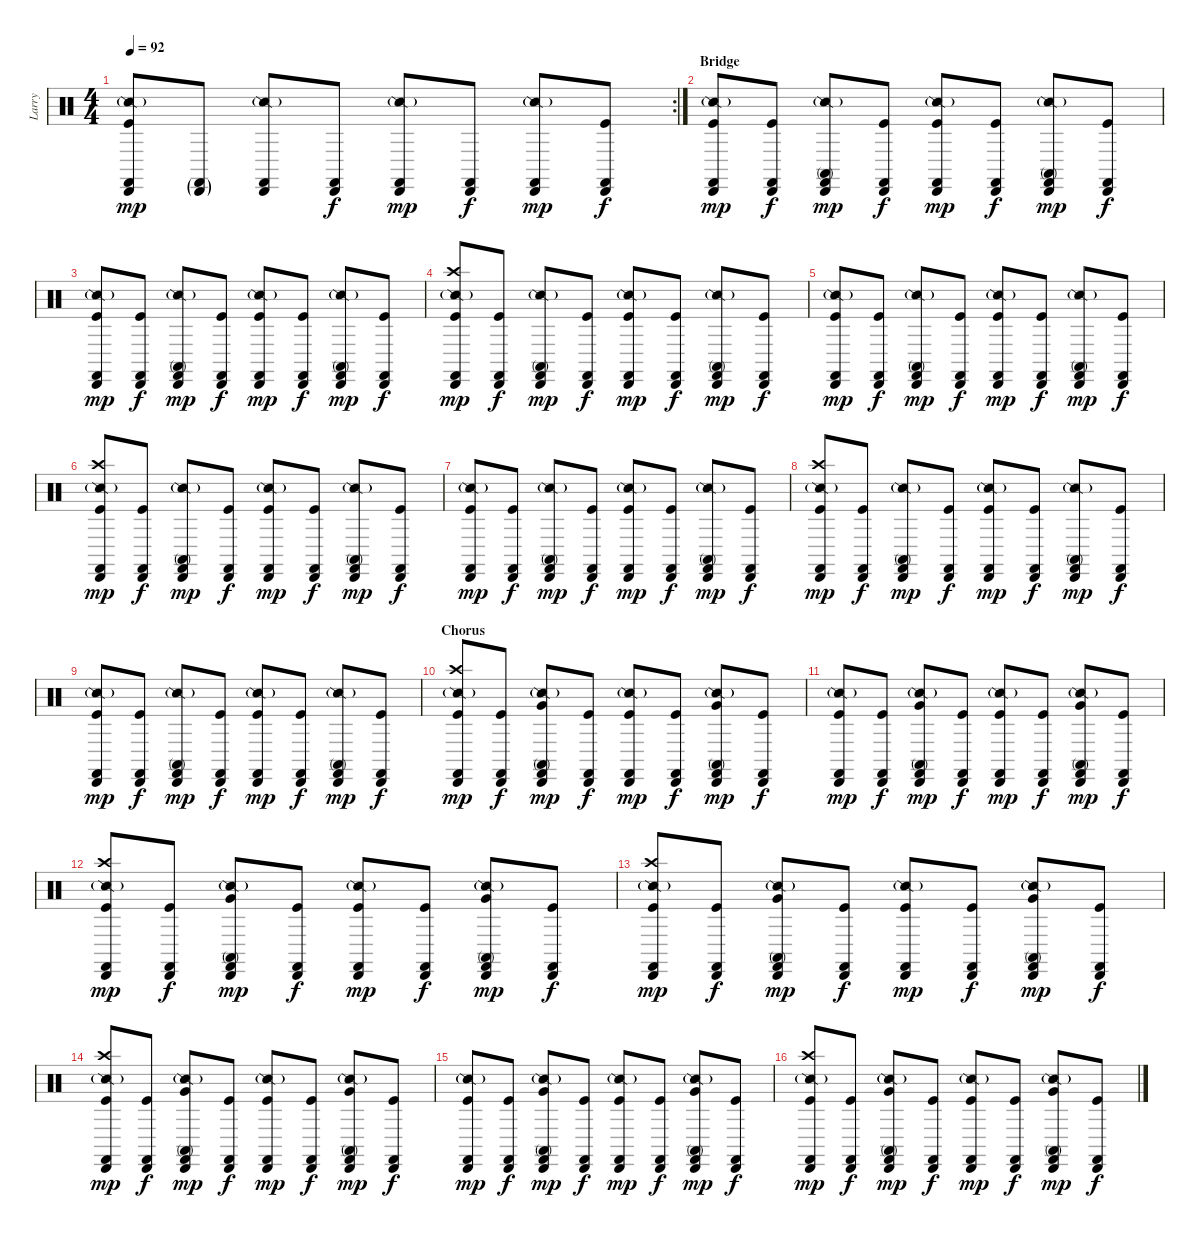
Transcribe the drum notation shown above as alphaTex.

\track ("Larry" "Larry") {instrument percussion}
\staff {score}
\articulation defaults
\rc 2
\ts (4 4)
\tempo 92
\clef neutral
\ks c
("Snare (side stick) 2"{g} "Castanets (hit)" "Cabasa (hit)" "Kick (hit)").8{dy mp} ("Castanets (hit)"{g} "Cabasa (hit)"{g}).8 ("Snare (side stick) 2"{g} "Castanets (hit)" "Cabasa (hit)").8 ("Castanets (hit)" "Cabasa (hit)").8{dy f} ("Snare (side stick) 2"{g} "Castanets (hit)" "Cabasa (hit)").8{dy mp} ("Castanets (hit)" "Cabasa (hit)").8{dy f} ("Snare (side stick) 2"{g} "Castanets (hit)" "Cabasa (hit)").8{dy mp} ("Castanets (hit)" "Cabasa (hit)" "Kick (hit)").8{dy f} |
\section ("" "Bridge")
("Snare (side stick) 2"{g} "Castanets (hit)" "Cabasa (hit)" "Kick (hit)").8{dy mp} ("Castanets (hit)" "Cabasa (hit)" "Kick (hit)").8{dy f} ("Snare (side stick) 2"{g} "Castanets (hit)" "Cabasa (hit)" "Conga high (mute)").8{dy mp} ("Castanets (hit)" "Cabasa (hit)" "Kick (hit)").8{dy f} ("Snare (side stick) 2"{g} "Castanets (hit)" "Cabasa (hit)" "Kick (hit)").8{dy mp} ("Castanets (hit)" "Cabasa (hit)" "Kick (hit)").8{dy f} ("Snare (side stick) 2"{g} "Castanets (hit)" "Cabasa (hit)" "Conga high (mute)").8{dy mp} ("Castanets (hit)" "Cabasa (hit)" "Kick (hit)").8{dy f} |
("Snare (side stick) 2"{g} "Castanets (hit)" "Cabasa (hit)" "Kick (hit)").8{dy mp} ("Castanets (hit)" "Cabasa (hit)" "Kick (hit)").8{dy f} ("Snare (side stick) 2"{g} "Castanets (hit)" "Cabasa (hit)" "Conga high (mute)").8{dy mp} ("Castanets (hit)" "Cabasa (hit)" "Kick (hit)").8{dy f} ("Snare (side stick) 2"{g} "Castanets (hit)" "Cabasa (hit)" "Kick (hit)").8{dy mp} ("Castanets (hit)" "Cabasa (hit)" "Kick (hit)").8{dy f} ("Snare (side stick) 2"{g} "Castanets (hit)" "Cabasa (hit)" "Conga high (mute)").8{dy mp} ("Castanets (hit)" "Cabasa (hit)" "Kick (hit)").8{dy f} |
("Snare (side stick) 2"{g} "Castanets (hit)" "Cabasa (hit)" "Crash high (hit)" "Kick (hit)").8{dy mp} ("Castanets (hit)" "Cabasa (hit)" "Kick (hit)").8{dy f} ("Snare (side stick) 2"{g} "Castanets (hit)" "Cabasa (hit)" "Conga high (mute)").8{dy mp} ("Castanets (hit)" "Cabasa (hit)" "Kick (hit)").8{dy f} ("Snare (side stick) 2"{g} "Castanets (hit)" "Cabasa (hit)" "Kick (hit)").8{dy mp} ("Castanets (hit)" "Cabasa (hit)" "Kick (hit)").8{dy f} ("Snare (side stick) 2"{g} "Castanets (hit)" "Cabasa (hit)" "Conga high (mute)").8{dy mp} ("Castanets (hit)" "Cabasa (hit)" "Kick (hit)").8{dy f} |
("Snare (side stick) 2"{g} "Castanets (hit)" "Cabasa (hit)" "Kick (hit)").8{dy mp} ("Castanets (hit)" "Cabasa (hit)" "Kick (hit)").8{dy f} ("Snare (side stick) 2"{g} "Castanets (hit)" "Cabasa (hit)" "Conga high (mute)").8{dy mp} ("Castanets (hit)" "Cabasa (hit)" "Kick (hit)").8{dy f} ("Snare (side stick) 2"{g} "Castanets (hit)" "Cabasa (hit)" "Kick (hit)").8{dy mp} ("Castanets (hit)" "Cabasa (hit)" "Kick (hit)").8{dy f} ("Snare (side stick) 2"{g} "Castanets (hit)" "Cabasa (hit)" "Conga high (mute)").8{dy mp} ("Castanets (hit)" "Cabasa (hit)" "Kick (hit)").8{dy f} |
("Snare (side stick) 2"{g} "Castanets (hit)" "Cabasa (hit)" "Crash high (hit)" "Kick (hit)").8{dy mp} ("Castanets (hit)" "Cabasa (hit)" "Kick (hit)").8{dy f} ("Snare (side stick) 2"{g} "Castanets (hit)" "Cabasa (hit)" "Conga high (mute)").8{dy mp} ("Castanets (hit)" "Cabasa (hit)" "Kick (hit)").8{dy f} ("Snare (side stick) 2"{g} "Castanets (hit)" "Cabasa (hit)" "Kick (hit)").8{dy mp} ("Castanets (hit)" "Cabasa (hit)" "Kick (hit)").8{dy f} ("Snare (side stick) 2"{g} "Castanets (hit)" "Cabasa (hit)" "Conga high (mute)").8{dy mp} ("Castanets (hit)" "Cabasa (hit)" "Kick (hit)").8{dy f} |
("Snare (side stick) 2"{g} "Castanets (hit)" "Cabasa (hit)" "Kick (hit)").8{dy mp} ("Castanets (hit)" "Cabasa (hit)" "Kick (hit)").8{dy f} ("Snare (side stick) 2"{g} "Castanets (hit)" "Cabasa (hit)" "Conga high (mute)").8{dy mp} ("Castanets (hit)" "Cabasa (hit)" "Kick (hit)").8{dy f} ("Snare (side stick) 2"{g} "Castanets (hit)" "Cabasa (hit)" "Kick (hit)").8{dy mp} ("Castanets (hit)" "Cabasa (hit)" "Kick (hit)").8{dy f} ("Snare (side stick) 2"{g} "Castanets (hit)" "Cabasa (hit)" "Conga high (mute)").8{dy mp} ("Castanets (hit)" "Cabasa (hit)" "Kick (hit)").8{dy f} |
("Snare (side stick) 2"{g} "Castanets (hit)" "Cabasa (hit)" "Crash high (hit)" "Kick (hit)").8{dy mp} ("Castanets (hit)" "Cabasa (hit)" "Kick (hit)").8{dy f} ("Snare (side stick) 2"{g} "Castanets (hit)" "Cabasa (hit)" "Conga high (mute)").8{dy mp} ("Castanets (hit)" "Cabasa (hit)" "Kick (hit)").8{dy f} ("Snare (side stick) 2"{g} "Castanets (hit)" "Cabasa (hit)" "Kick (hit)").8{dy mp} ("Castanets (hit)" "Cabasa (hit)" "Kick (hit)").8{dy f} ("Snare (side stick) 2"{g} "Castanets (hit)" "Cabasa (hit)" "Conga high (mute)").8{dy mp} ("Castanets (hit)" "Cabasa (hit)" "Kick (hit)").8{dy f} |
("Snare (side stick) 2"{g} "Castanets (hit)" "Cabasa (hit)" "Kick (hit)").8{dy mp} ("Castanets (hit)" "Cabasa (hit)" "Kick (hit)").8{dy f} ("Snare (side stick) 2"{g} "Castanets (hit)" "Cabasa (hit)" "Conga high (mute)").8{dy mp} ("Castanets (hit)" "Cabasa (hit)" "Kick (hit)").8{dy f} ("Snare (side stick) 2"{g} "Castanets (hit)" "Cabasa (hit)" "Kick (hit)").8{dy mp} ("Castanets (hit)" "Cabasa (hit)" "Kick (hit)").8{dy f} ("Snare (side stick) 2"{g} "Castanets (hit)" "Cabasa (hit)" "Conga high (mute)").8{dy mp} ("Castanets (hit)" "Cabasa (hit)" "Kick (hit)").8{dy f} |
\section ("" "Chorus")
("Snare (side stick) 2"{g} "Castanets (hit)" "Cabasa (hit)" "Kick (hit)" "Crash high (hit)").8{dy mp} ("Castanets (hit)" "Cabasa (hit)" "Kick (hit)").8{dy f} ("Snare (side stick) 2"{g} "Castanets (hit)" "Cabasa (hit)" "Conga high (mute)" "Very Low Tom (hit)").8{dy mp} ("Castanets (hit)" "Cabasa (hit)" "Kick (hit)").8{dy f} ("Snare (side stick) 2"{g} "Castanets (hit)" "Cabasa (hit)" "Kick (hit)").8{dy mp} ("Castanets (hit)" "Cabasa (hit)" "Kick (hit)").8{dy f} ("Snare (side stick) 2"{g} "Castanets (hit)" "Cabasa (hit)" "Conga high (mute)" "Very Low Tom (hit)").8{dy mp} ("Castanets (hit)" "Cabasa (hit)" "Kick (hit)").8{dy f} |
("Snare (side stick) 2"{g} "Castanets (hit)" "Cabasa (hit)" "Kick (hit)").8{dy mp} ("Castanets (hit)" "Cabasa (hit)" "Kick (hit)").8{dy f} ("Snare (side stick) 2"{g} "Castanets (hit)" "Cabasa (hit)" "Conga high (mute)" "Very Low Tom (hit)").8{dy mp} ("Castanets (hit)" "Cabasa (hit)" "Kick (hit)").8{dy f} ("Snare (side stick) 2"{g} "Castanets (hit)" "Cabasa (hit)" "Kick (hit)").8{dy mp} ("Castanets (hit)" "Cabasa (hit)" "Kick (hit)").8{dy f} ("Snare (side stick) 2"{g} "Castanets (hit)" "Cabasa (hit)" "Conga high (mute)" "Very Low Tom (hit)").8{dy mp} ("Castanets (hit)" "Cabasa (hit)" "Kick (hit)").8{dy f} |
("Snare (side stick) 2"{g} "Castanets (hit)" "Cabasa (hit)" "Kick (hit)" "Crash high (hit)").8{dy mp} ("Castanets (hit)" "Cabasa (hit)" "Kick (hit)").8{dy f} ("Snare (side stick) 2"{g} "Castanets (hit)" "Cabasa (hit)" "Conga high (mute)" "Very Low Tom (hit)").8{dy mp} ("Castanets (hit)" "Cabasa (hit)" "Kick (hit)").8{dy f} ("Snare (side stick) 2"{g} "Castanets (hit)" "Cabasa (hit)" "Kick (hit)").8{dy mp} ("Castanets (hit)" "Cabasa (hit)" "Kick (hit)").8{dy f} ("Snare (side stick) 2"{g} "Castanets (hit)" "Cabasa (hit)" "Conga high (mute)" "Very Low Tom (hit)").8{dy mp} ("Castanets (hit)" "Cabasa (hit)" "Kick (hit)").8{dy f} |
("Snare (side stick) 2"{g} "Castanets (hit)" "Cabasa (hit)" "Kick (hit)" "Crash high (hit)").8{dy mp} ("Castanets (hit)" "Cabasa (hit)" "Kick (hit)").8{dy f} ("Snare (side stick) 2"{g} "Castanets (hit)" "Cabasa (hit)" "Conga high (mute)" "Very Low Tom (hit)").8{dy mp} ("Castanets (hit)" "Cabasa (hit)" "Kick (hit)").8{dy f} ("Snare (side stick) 2"{g} "Castanets (hit)" "Cabasa (hit)" "Kick (hit)").8{dy mp} ("Castanets (hit)" "Cabasa (hit)" "Kick (hit)").8{dy f} ("Snare (side stick) 2"{g} "Castanets (hit)" "Cabasa (hit)" "Conga high (mute)" "Very Low Tom (hit)").8{dy mp} ("Castanets (hit)" "Cabasa (hit)" "Kick (hit)").8{dy f} |
("Snare (side stick) 2"{g} "Castanets (hit)" "Cabasa (hit)" "Kick (hit)" "Crash high (hit)").8{dy mp} ("Castanets (hit)" "Cabasa (hit)" "Kick (hit)").8{dy f} ("Snare (side stick) 2"{g} "Castanets (hit)" "Cabasa (hit)" "Conga high (mute)" "Very Low Tom (hit)").8{dy mp} ("Castanets (hit)" "Cabasa (hit)" "Kick (hit)").8{dy f} ("Snare (side stick) 2"{g} "Castanets (hit)" "Cabasa (hit)" "Kick (hit)").8{dy mp} ("Castanets (hit)" "Cabasa (hit)" "Kick (hit)").8{dy f} ("Snare (side stick) 2"{g} "Castanets (hit)" "Cabasa (hit)" "Conga high (mute)" "Very Low Tom (hit)").8{dy mp} ("Castanets (hit)" "Cabasa (hit)" "Kick (hit)").8{dy f} |
("Snare (side stick) 2"{g} "Castanets (hit)" "Cabasa (hit)" "Kick (hit)").8{dy mp} ("Castanets (hit)" "Cabasa (hit)" "Kick (hit)").8{dy f} ("Snare (side stick) 2"{g} "Castanets (hit)" "Cabasa (hit)" "Conga high (mute)" "Very Low Tom (hit)").8{dy mp} ("Castanets (hit)" "Cabasa (hit)" "Kick (hit)").8{dy f} ("Snare (side stick) 2"{g} "Castanets (hit)" "Cabasa (hit)" "Kick (hit)").8{dy mp} ("Castanets (hit)" "Cabasa (hit)" "Kick (hit)").8{dy f} ("Snare (side stick) 2"{g} "Castanets (hit)" "Cabasa (hit)" "Conga high (mute)" "Very Low Tom (hit)").8{dy mp} ("Castanets (hit)" "Cabasa (hit)" "Kick (hit)").8{dy f} |
("Snare (side stick) 2"{g} "Castanets (hit)" "Cabasa (hit)" "Kick (hit)" "Crash high (hit)").8{dy mp} ("Castanets (hit)" "Cabasa (hit)" "Kick (hit)").8{dy f} ("Snare (side stick) 2"{g} "Castanets (hit)" "Cabasa (hit)" "Conga high (mute)" "Very Low Tom (hit)").8{dy mp} ("Castanets (hit)" "Cabasa (hit)" "Kick (hit)").8{dy f} ("Snare (side stick) 2"{g} "Castanets (hit)" "Cabasa (hit)" "Kick (hit)").8{dy mp} ("Castanets (hit)" "Cabasa (hit)" "Kick (hit)").8{dy f} ("Snare (side stick) 2"{g} "Castanets (hit)" "Cabasa (hit)" "Conga high (mute)" "Very Low Tom (hit)").8{dy mp} ("Castanets (hit)" "Cabasa (hit)" "Kick (hit)").8{dy f}
